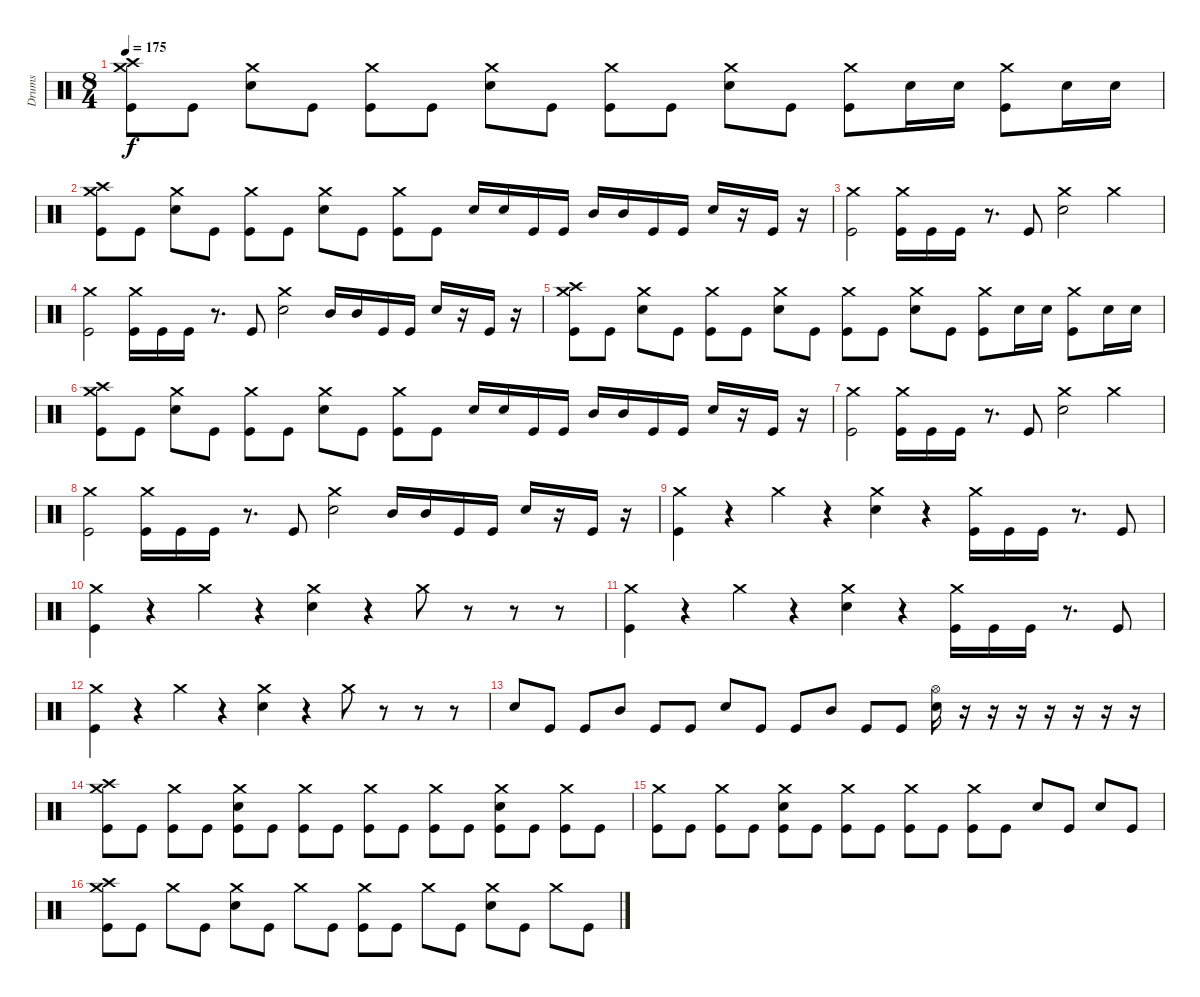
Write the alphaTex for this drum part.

\track ("Drums" "Drums") {instrument percussion}
\staff {score}
\articulation defaults
\ts (8 4)
\tempo 175
\clef neutral
\ks c
("Crash high (hit)" "Crash medium (hit)" "Kick (hit)").8{dy f} "Kick (hit)".8 ("Crash medium (hit)" "Snare (hit) 2").8 "Kick (hit)".8 ("Crash medium (hit)" "Kick (hit)").8 "Kick (hit)".8 ("Crash medium (hit)" "Snare (hit) 2").8 "Kick (hit)".8 ("Crash medium (hit)" "Kick (hit)").8 "Kick (hit)".8 ("Crash medium (hit)" "Snare (hit) 2").8 "Kick (hit)".8 ("Crash medium (hit)" "Kick (hit)").8 "Snare (hit) 2".16 "Snare (hit) 2".16 ("Crash medium (hit)" "Kick (hit)").8 "Snare (hit) 2".16 "Snare (hit) 2".16 |
("Crash high (hit)" "Crash medium (hit)" "Kick (hit)").8 "Kick (hit)".8 ("Crash medium (hit)" "Snare (hit) 2").8 "Kick (hit)".8 ("Crash medium (hit)" "Kick (hit)").8 "Kick (hit)".8 ("Crash medium (hit)" "Snare (hit) 2").8 "Kick (hit)".8 ("Crash medium (hit)" "Kick (hit)").8 "Kick (hit)".8 "Snare (hit) 2".16 "Snare (hit) 2".16 "Kick (hit)".16 "Kick (hit)".16 "Mid Tom (hit)".16 "Mid Tom (hit)".16 "Kick (hit)".16 "Kick (hit)".16 "Snare (hit) 2".16 r.16 "Kick (hit)".16 r.16 |
("Crash medium (hit)" "Kick (hit)").2 ("Crash medium (hit)" "Kick (hit)").16 "Kick (hit)".16 "Kick (hit)".16 r.8{d} "Kick (hit)".8 ("Crash medium (hit)" "Snare (hit) 2").2 "Crash medium (hit)".2 |
("Crash medium (hit)" "Kick (hit)").2 ("Crash medium (hit)" "Kick (hit)").16 "Kick (hit)".16 "Kick (hit)".16 r.8{d} "Kick (hit)".8 ("Crash medium (hit)" "Snare (hit) 2").2 "Mid Tom (hit)".16 "Mid Tom (hit)".16 "Kick (hit)".16 "Kick (hit)".16 "Snare (hit) 2".16 r.16 "Kick (hit)".16 r.16 |
("Crash high (hit)" "Crash medium (hit)" "Kick (hit)").8 "Kick (hit)".8 ("Crash medium (hit)" "Snare (hit) 2").8 "Kick (hit)".8 ("Crash medium (hit)" "Kick (hit)").8 "Kick (hit)".8 ("Crash medium (hit)" "Snare (hit) 2").8 "Kick (hit)".8 ("Crash medium (hit)" "Kick (hit)").8 "Kick (hit)".8 ("Crash medium (hit)" "Snare (hit) 2").8 "Kick (hit)".8 ("Crash medium (hit)" "Kick (hit)").8 "Snare (hit) 2".16 "Snare (hit) 2".16 ("Crash medium (hit)" "Kick (hit)").8 "Snare (hit) 2".16 "Snare (hit) 2".16 |
("Crash high (hit)" "Crash medium (hit)" "Kick (hit)").8 "Kick (hit)".8 ("Crash medium (hit)" "Snare (hit) 2").8 "Kick (hit)".8 ("Crash medium (hit)" "Kick (hit)").8 "Kick (hit)".8 ("Crash medium (hit)" "Snare (hit) 2").8 "Kick (hit)".8 ("Crash medium (hit)" "Kick (hit)").8 "Kick (hit)".8 "Snare (hit) 2".16 "Snare (hit) 2".16 "Kick (hit)".16 "Kick (hit)".16 "Mid Tom (hit)".16 "Mid Tom (hit)".16 "Kick (hit)".16 "Kick (hit)".16 "Snare (hit) 2".16 r.16 "Kick (hit)".16 r.16 |
("Crash medium (hit)" "Kick (hit)").2 ("Crash medium (hit)" "Kick (hit)").16 "Kick (hit)".16 "Kick (hit)".16 r.8{d} "Kick (hit)".8 ("Crash medium (hit)" "Snare (hit) 2").2 "Crash medium (hit)".2 |
("Crash medium (hit)" "Kick (hit)").2 ("Crash medium (hit)" "Kick (hit)").16 "Kick (hit)".16 "Kick (hit)".16 r.8{d} "Kick (hit)".8 ("Crash medium (hit)" "Snare (hit) 2").2 "Mid Tom (hit)".16 "Mid Tom (hit)".16 "Kick (hit)".16 "Kick (hit)".16 "Snare (hit) 2".16 r.16 "Kick (hit)".16 r.16 |
("Crash medium (hit)" "Kick (hit)").4 r.4 "Crash medium (hit)".4 r.4 ("Crash medium (hit)" "Snare (hit) 2").4 r.4 ("Crash medium (hit)" "Kick (hit)").16 "Kick (hit)".16 "Kick (hit)".16 r.8{d} "Kick (hit)".8 |
("Crash medium (hit)" "Kick (hit)").4 r.4 "Crash medium (hit)".4 r.4 ("Crash medium (hit)" "Snare (hit) 2").4 r.4 "Crash medium (hit)".8 r.8 r.8 r.8 |
("Crash medium (hit)" "Kick (hit)").4 r.4 "Crash medium (hit)".4 r.4 ("Crash medium (hit)" "Snare (hit) 2").4 r.4 ("Crash medium (hit)" "Kick (hit)").16 "Kick (hit)".16 "Kick (hit)".16 r.8{d} "Kick (hit)".8 |
("Crash medium (hit)" "Kick (hit)").4 r.4 "Crash medium (hit)".4 r.4 ("Crash medium (hit)" "Snare (hit) 2").4 r.4 "Crash medium (hit)".8 r.8 r.8 r.8 |
"Snare (hit) 2".8 "Kick (hit)".8 "Kick (hit)".8 "Mid Tom (hit)".8 "Kick (hit)".8 "Kick (hit)".8 "Snare (hit) 2".8 "Kick (hit)".8 "Kick (hit)".8 "Mid Tom (hit)".8 "Kick (hit)".8 "Kick (hit)".8 ("Hi-Hat (open)" "Snare (hit) 2").16 r.16 r.16 r.16 r.16 r.16 r.16 r.16 |
("Crash high (hit)" "Crash medium (hit)" "Kick (hit)").8 "Kick (hit)".8 ("Crash medium (hit)" "Kick (hit)").8 "Kick (hit)".8 ("Crash medium (hit)" "Snare (hit) 2" "Kick (hit)").8 "Kick (hit)".8 ("Crash medium (hit)" "Kick (hit)").8 "Kick (hit)".8 ("Crash medium (hit)" "Kick (hit)").8 "Kick (hit)".8 ("Crash medium (hit)" "Kick (hit)").8 "Kick (hit)".8 ("Crash medium (hit)" "Snare (hit) 2" "Kick (hit)").8 "Kick (hit)".8 ("Crash medium (hit)" "Kick (hit)").8 "Kick (hit)".8 |
("Crash medium (hit)" "Kick (hit)").8 "Kick (hit)".8 ("Crash medium (hit)" "Kick (hit)").8 "Kick (hit)".8 ("Crash medium (hit)" "Snare (hit) 2" "Kick (hit)").8 "Kick (hit)".8 ("Crash medium (hit)" "Kick (hit)").8 "Kick (hit)".8 ("Crash medium (hit)" "Kick (hit)").8 "Kick (hit)".8 ("Crash medium (hit)" "Kick (hit)").8 "Kick (hit)".8 "Snare (hit) 2".8 "Kick (hit)".8 "Snare (hit) 2".8 "Kick (hit)".8 |
("Crash high (hit)" "Crash medium (hit)" "Kick (hit)").8 "Kick (hit)".8 "Crash medium (hit)".8 "Kick (hit)".8 ("Crash medium (hit)" "Snare (hit) 2").8 "Kick (hit)".8 "Crash medium (hit)".8 "Kick (hit)".8 ("Crash medium (hit)" "Kick (hit)").8 "Kick (hit)".8 "Crash medium (hit)".8 "Kick (hit)".8 ("Crash medium (hit)" "Snare (hit) 2").8 "Kick (hit)".8 "Crash medium (hit)".8 "Kick (hit)".8
